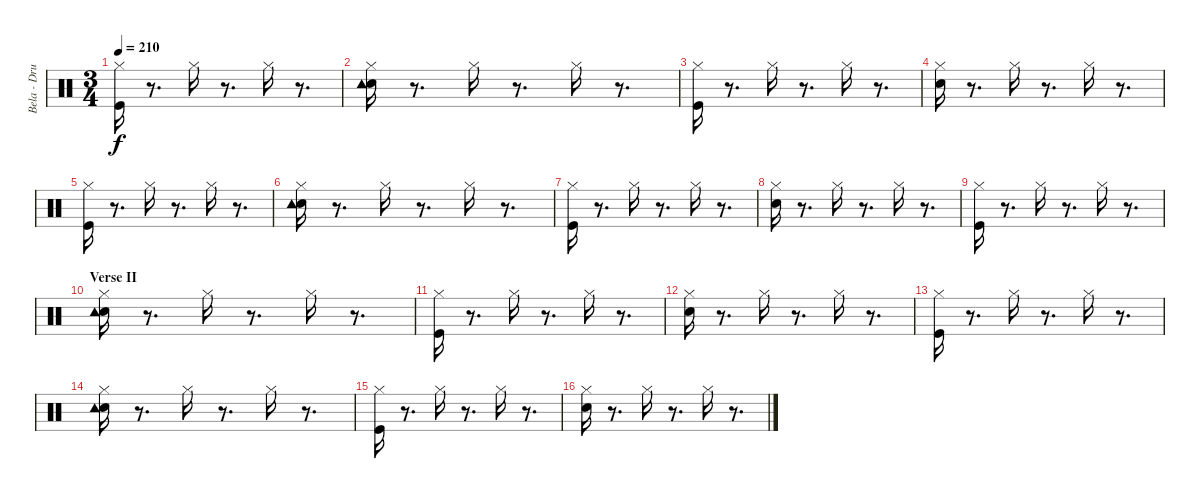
\track ("Bela - Drums" "Bela - Dru") {instrument percussion}
\staff {score}
\articulation defaults
\ts (3 4)
\tempo 210
\clef neutral
\ks c
("Kick (hit)" "Hi-Hat (closed)").16{dy f} r.8{d} "Hi-Hat (closed)".16 r.8{d} "Hi-Hat (closed)".16 r.8{d} |
("Hi-Hat (closed)" "Electric Snare (hit)" "Tambourine (hit)").16 r.8{d} "Hi-Hat (closed)".16 r.8{d} "Hi-Hat (closed)".16 r.8{d} |
("Kick (hit)" "Hi-Hat (closed)").16 r.8{d} "Hi-Hat (closed)".16 r.8{d} "Hi-Hat (closed)".16 r.8{d} |
("Hi-Hat (closed)" "Electric Snare (hit)").16 r.8{d} "Hi-Hat (closed)".16 r.8{d} "Hi-Hat (closed)".16 r.8{d} |
("Kick (hit)" "Hi-Hat (closed)").16 r.8{d} "Hi-Hat (closed)".16 r.8{d} "Hi-Hat (closed)".16 r.8{d} |
("Hi-Hat (closed)" "Electric Snare (hit)" "Tambourine (hit)").16 r.8{d} "Hi-Hat (closed)".16 r.8{d} "Hi-Hat (closed)".16 r.8{d} |
("Kick (hit)" "Hi-Hat (closed)").16 r.8{d} "Hi-Hat (closed)".16 r.8{d} "Hi-Hat (closed)".16 r.8{d} |
("Hi-Hat (closed)" "Electric Snare (hit)").16 r.8{d} "Hi-Hat (closed)".16 r.8{d} "Hi-Hat (closed)".16 r.8{d} |
("Kick (hit)" "Hi-Hat (closed)").16 r.8{d} "Hi-Hat (closed)".16 r.8{d} "Hi-Hat (closed)".16 r.8{d} |
\section ("" "Verse II")
("Hi-Hat (closed)" "Electric Snare (hit)" "Tambourine (hit)").16 r.8{d} "Hi-Hat (closed)".16 r.8{d} "Hi-Hat (closed)".16 r.8{d} |
("Kick (hit)" "Hi-Hat (closed)").16 r.8{d} "Hi-Hat (closed)".16 r.8{d} "Hi-Hat (closed)".16 r.8{d} |
("Hi-Hat (closed)" "Electric Snare (hit)").16 r.8{d} "Hi-Hat (closed)".16 r.8{d} "Hi-Hat (closed)".16 r.8{d} |
("Kick (hit)" "Hi-Hat (closed)").16 r.8{d} "Hi-Hat (closed)".16 r.8{d} "Hi-Hat (closed)".16 r.8{d} |
("Hi-Hat (closed)" "Electric Snare (hit)" "Tambourine (hit)").16 r.8{d} "Hi-Hat (closed)".16 r.8{d} "Hi-Hat (closed)".16 r.8{d} |
("Kick (hit)" "Hi-Hat (closed)").16 r.8{d} "Hi-Hat (closed)".16 r.8{d} "Hi-Hat (closed)".16 r.8{d} |
("Hi-Hat (closed)" "Electric Snare (hit)").16 r.8{d} "Hi-Hat (closed)".16 r.8{d} "Hi-Hat (closed)".16 r.8{d}
